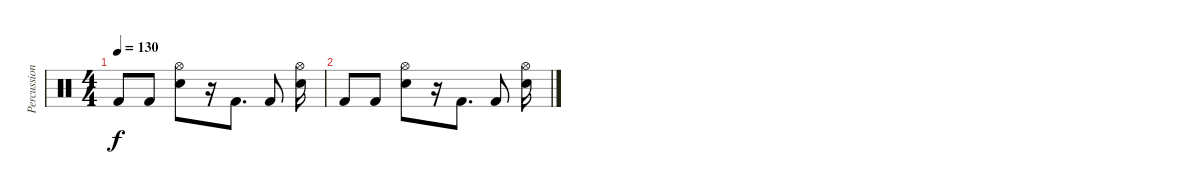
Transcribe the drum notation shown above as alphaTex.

\track ("Percussion" "Percussion") {instrument percussion}
\staff {score}
\articulation defaults
\ts (4 4)
\tempo 130
\clef neutral
\ks c "Kick (hit) 2".8{dy f} "Kick (hit) 2".8
("Electric Snare (hit)" "Hi-Hat (open)").8 r.16 "Kick (hit) 2".8{d} "Kick (hit) 2".8 ("Electric Snare (hit)" "Hi-Hat (open)").16 |
"Kick (hit) 2".8 "Kick (hit) 2".8 ("Electric Snare (hit)" "Hi-Hat (open)").8 r.16 "Kick (hit) 2".8{d} "Kick (hit) 2".8 ("Electric Snare (hit)" "Hi-Hat (open)").16
